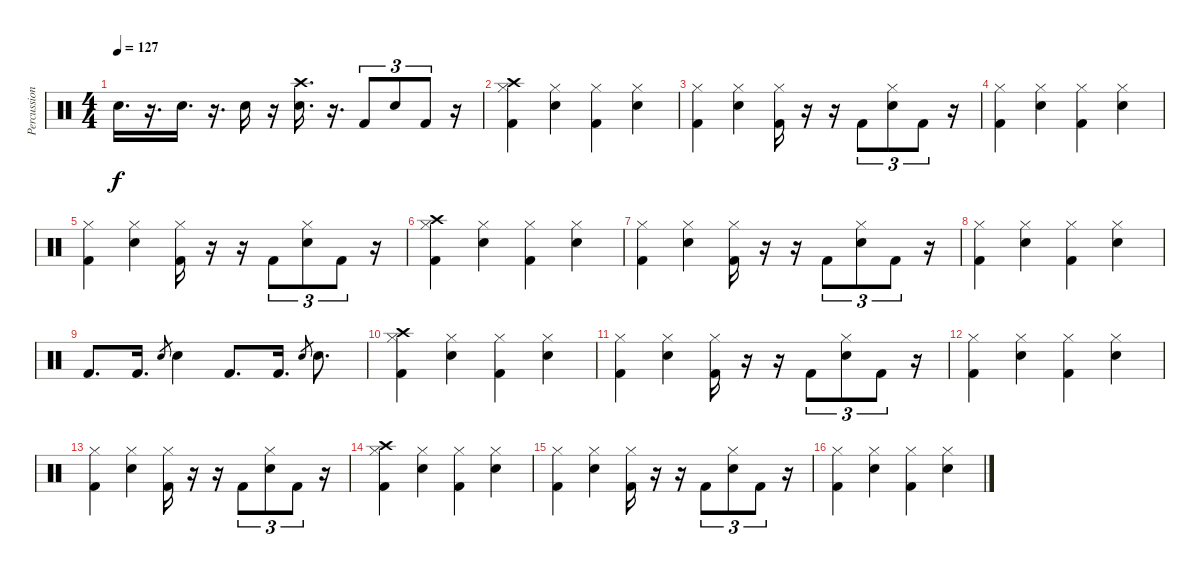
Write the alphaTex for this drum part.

\track ("Percussions" "Percussion") {instrument percussion}
\staff {score}
\articulation defaults
\ts (4 4)
\tempo 127
\clef neutral
\ks c "Electric Snare (hit)".16{d dy f}
r.16{d} "Electric Snare (hit)".16{d} r.16{d} "Electric Snare (hit)".16 r.16 ("Crash high (hit)" "Electric Snare (hit)").16{d} r.16{d} "Kick (hit) 2".8{tu (3 2)} "Electric Snare (hit)".8{tu (3 2)} "Kick (hit) 2".8{tu (3 2)} r.16 |
("Crash high (hit)" "Hi-Hat (closed)" "Kick (hit) 2").4 ("Hi-Hat (closed)" "Electric Snare (hit)").4 ("Hi-Hat (closed)" "Kick (hit) 2").4 ("Hi-Hat (closed)" "Electric Snare (hit)").4 |
("Hi-Hat (closed)" "Kick (hit) 2").4 ("Hi-Hat (closed)" "Electric Snare (hit)").4 ("Hi-Hat (closed)" "Kick (hit) 2").16 r.16 r.16 "Kick (hit) 2".8{tu (3 2)} ("Hi-Hat (closed)" "Electric Snare (hit)").8{tu (3 2)} "Kick (hit) 2".8{tu (3 2)} r.16 |
("Hi-Hat (closed)" "Kick (hit) 2").4 ("Hi-Hat (closed)" "Electric Snare (hit)").4 ("Hi-Hat (closed)" "Kick (hit) 2").4 ("Hi-Hat (closed)" "Electric Snare (hit)").4 |
("Hi-Hat (closed)" "Kick (hit) 2").4 ("Hi-Hat (closed)" "Electric Snare (hit)").4 ("Hi-Hat (closed)" "Kick (hit) 2").16 r.16 r.16 "Kick (hit) 2".8{tu (3 2)} ("Hi-Hat (closed)" "Electric Snare (hit)").8{tu (3 2)} "Kick (hit) 2".8{tu (3 2)} r.16 |
("Crash high (hit)" "Hi-Hat (closed)" "Kick (hit) 2").4 ("Hi-Hat (closed)" "Electric Snare (hit)").4 ("Hi-Hat (closed)" "Kick (hit) 2").4 ("Hi-Hat (closed)" "Electric Snare (hit)").4 |
("Hi-Hat (closed)" "Kick (hit) 2").4 ("Hi-Hat (closed)" "Electric Snare (hit)").4 ("Hi-Hat (closed)" "Kick (hit) 2").16 r.16 r.16 "Kick (hit) 2".8{tu (3 2)} ("Hi-Hat (closed)" "Electric Snare (hit)").8{tu (3 2)} "Kick (hit) 2".8{tu (3 2)} r.16 |
("Hi-Hat (closed)" "Kick (hit) 2").4 ("Hi-Hat (closed)" "Electric Snare (hit)").4 ("Hi-Hat (closed)" "Kick (hit) 2").4 ("Hi-Hat (closed)" "Electric Snare (hit)").4 |
"Kick (hit) 2".8{d} "Kick (hit) 2".16{d} "Electric Snare (hit)".8{gr} "Electric Snare (hit)".4 "Kick (hit) 2".8{d} "Kick (hit) 2".16{d} "Electric Snare (hit)".8{gr} "Electric Snare (hit)".8{d} |
("Crash high (hit)" "Hi-Hat (closed)" "Kick (hit) 2").4 ("Hi-Hat (closed)" "Electric Snare (hit)").4 ("Hi-Hat (closed)" "Kick (hit) 2").4 ("Hi-Hat (closed)" "Electric Snare (hit)").4 |
("Hi-Hat (closed)" "Kick (hit) 2").4 ("Hi-Hat (closed)" "Electric Snare (hit)").4 ("Hi-Hat (closed)" "Kick (hit) 2").16 r.16 r.16 "Kick (hit) 2".8{tu (3 2)} ("Hi-Hat (closed)" "Electric Snare (hit)").8{tu (3 2)} "Kick (hit) 2".8{tu (3 2)} r.16 |
("Hi-Hat (closed)" "Kick (hit) 2").4 ("Hi-Hat (closed)" "Electric Snare (hit)").4 ("Hi-Hat (closed)" "Kick (hit) 2").4 ("Hi-Hat (closed)" "Electric Snare (hit)").4 |
("Hi-Hat (closed)" "Kick (hit) 2").4 ("Hi-Hat (closed)" "Electric Snare (hit)").4 ("Hi-Hat (closed)" "Kick (hit) 2").16 r.16 r.16 "Kick (hit) 2".8{tu (3 2)} ("Hi-Hat (closed)" "Electric Snare (hit)").8{tu (3 2)} "Kick (hit) 2".8{tu (3 2)} r.16 |
("Crash high (hit)" "Hi-Hat (closed)" "Kick (hit) 2").4 ("Hi-Hat (closed)" "Electric Snare (hit)").4 ("Hi-Hat (closed)" "Kick (hit) 2").4 ("Hi-Hat (closed)" "Electric Snare (hit)").4 |
("Hi-Hat (closed)" "Kick (hit) 2").4 ("Hi-Hat (closed)" "Electric Snare (hit)").4 ("Hi-Hat (closed)" "Kick (hit) 2").16 r.16 r.16 "Kick (hit) 2".8{tu (3 2)} ("Hi-Hat (closed)" "Electric Snare (hit)").8{tu (3 2)} "Kick (hit) 2".8{tu (3 2)} r.16 |
("Hi-Hat (closed)" "Kick (hit) 2").4 ("Hi-Hat (closed)" "Electric Snare (hit)").4 ("Hi-Hat (closed)" "Kick (hit) 2").4 ("Hi-Hat (closed)" "Electric Snare (hit)").4
